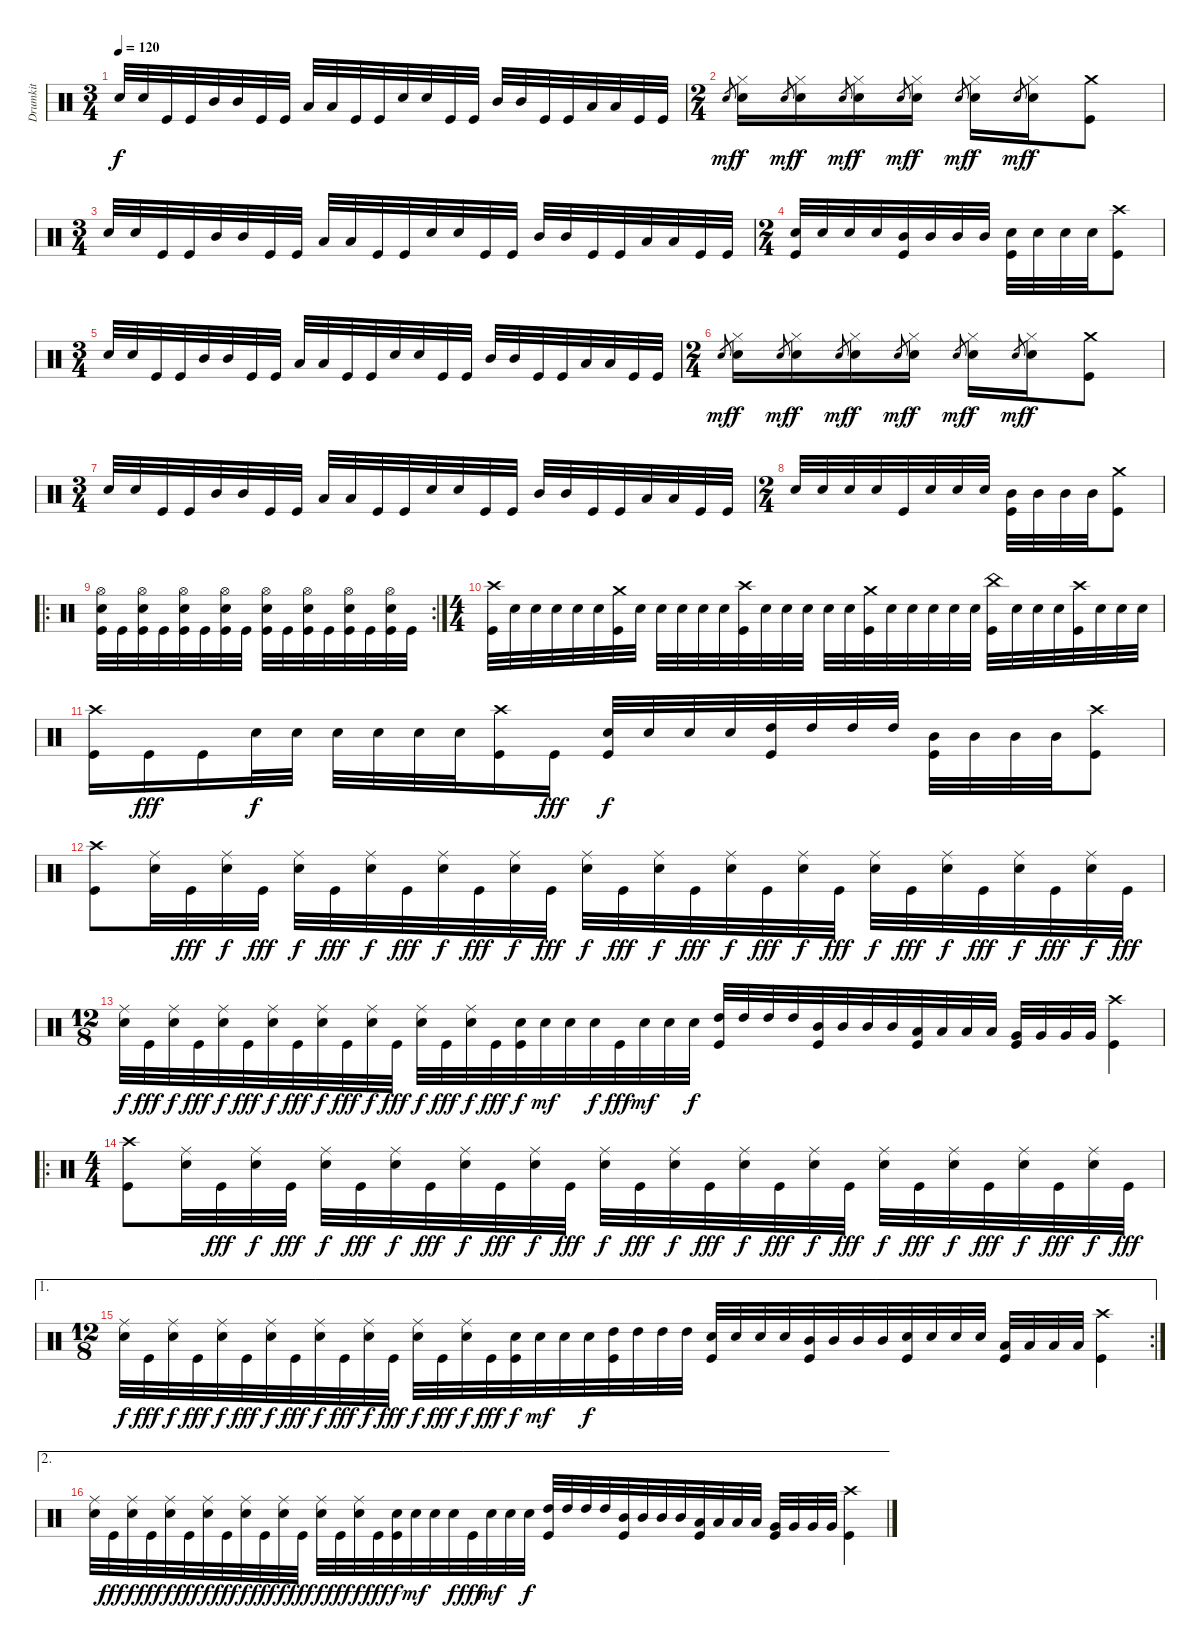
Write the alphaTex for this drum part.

\track ("Drumkit" "Drumkit") {instrument percussion}
\staff {score}
\articulation defaults
\ts (3 4)
\tempo 120
\clef neutral
\ks c "Snare (hit) 2".32{dy f} "Snare (hit) 2".32 "Kick (hit)".32 "Kick (hit)".32 "Mid Tom (hit)".32 "Mid Tom (hit)".32 "Kick (hit)".32 "Kick (hit)".32 "Low Tom (hit)".32 "Low Tom (hit)".32 "Kick (hit)".32 "Kick (hit)".32 "Snare (hit) 2".32 "Snare (hit) 2".32 "Kick (hit)".32 "Kick (hit)".32 "Mid Tom (hit)".32 "Mid Tom (hit)".32 "Kick (hit)".32 "Kick (hit)".32 "Low Tom (hit)".32 "Low Tom (hit)".32 "Kick (hit)".32 "Kick (hit)".32
|
\ts (2 4)
"Snare (hit)".8{gr dy mf} ("Hi-Hat (closed)" "Snare (hit) 2").16{dy f} "Snare (hit)".8{gr dy mf} ("Hi-Hat (closed)" "Snare (hit) 2").16{dy f} "Snare (hit)".8{gr dy mf} ("Hi-Hat (closed)" "Snare (hit) 2").16{dy f} "Snare (hit)".8{gr dy mf} ("Hi-Hat (closed)" "Snare (hit) 2").16{dy f} "Snare (hit)".8{gr dy mf} ("Hi-Hat (closed)" "Snare (hit) 2").16{dy f} "Snare (hit)".8{gr dy mf} ("Hi-Hat (closed)" "Snare (hit) 2").16{dy f} ("Crash medium (hit)" "Kick (hit)").8 |
\ts (3 4)
"Snare (hit) 2".32 "Snare (hit) 2".32 "Kick (hit)".32 "Kick (hit)".32 "Mid Tom (hit)".32 "Mid Tom (hit)".32 "Kick (hit)".32 "Kick (hit)".32 "Low Tom (hit)".32 "Low Tom (hit)".32 "Kick (hit)".32 "Kick (hit)".32 "Snare (hit) 2".32 "Snare (hit) 2".32 "Kick (hit)".32 "Kick (hit)".32 "Mid Tom (hit)".32 "Mid Tom (hit)".32 "Kick (hit)".32 "Kick (hit)".32 "Low Tom (hit)".32 "Low Tom (hit)".32 "Kick (hit)".32 "Kick (hit)".32 |
\ts (2 4)
("Snare (hit) 2" "Kick (hit)").32 "Snare (hit) 2".32 "Snare (hit) 2".32 "Snare (hit) 2".32 ("Mid Tom (hit)" "Kick (hit)").32 "Mid Tom (hit)".32 "Mid Tom (hit)".32 "Mid Tom (hit)".32 ("Snare (hit) 2" "Kick (hit)").32 "Snare (hit) 2".32 "Snare (hit) 2".32 "Snare (hit) 2".32 ("Crash high (hit)" "Kick (hit)").8 |
\ts (3 4)
"Snare (hit) 2".32 "Snare (hit) 2".32 "Kick (hit)".32 "Kick (hit)".32 "Mid Tom (hit)".32 "Mid Tom (hit)".32 "Kick (hit)".32 "Kick (hit)".32 "Low Tom (hit)".32 "Low Tom (hit)".32 "Kick (hit)".32 "Kick (hit)".32 "Snare (hit) 2".32 "Snare (hit) 2".32 "Kick (hit)".32 "Kick (hit)".32 "Mid Tom (hit)".32 "Mid Tom (hit)".32 "Kick (hit)".32 "Kick (hit)".32 "Low Tom (hit)".32 "Low Tom (hit)".32 "Kick (hit)".32 "Kick (hit)".32 |
\ts (2 4)
"Snare (hit)".8{gr dy mf} ("Hi-Hat (closed)" "Snare (hit) 2").16{dy f} "Snare (hit)".8{gr dy mf} ("Hi-Hat (closed)" "Snare (hit) 2").16{dy f} "Snare (hit)".8{gr dy mf} ("Hi-Hat (closed)" "Snare (hit) 2").16{dy f} "Snare (hit)".8{gr dy mf} ("Hi-Hat (closed)" "Snare (hit) 2").16{dy f} "Snare (hit)".8{gr dy mf} ("Hi-Hat (closed)" "Snare (hit) 2").16{dy f} "Snare (hit)".8{gr dy mf} ("Hi-Hat (closed)" "Snare (hit) 2").16{dy f} ("Crash medium (hit)" "Kick (hit)").8 |
\ts (3 4)
"Snare (hit) 2".32 "Snare (hit) 2".32 "Kick (hit)".32 "Kick (hit)".32 "Mid Tom (hit)".32 "Mid Tom (hit)".32 "Kick (hit)".32 "Kick (hit)".32 "Low Tom (hit)".32 "Low Tom (hit)".32 "Kick (hit)".32 "Kick (hit)".32 "Snare (hit) 2".32 "Snare (hit) 2".32 "Kick (hit)".32 "Kick (hit)".32 "Mid Tom (hit)".32 "Mid Tom (hit)".32 "Kick (hit)".32 "Kick (hit)".32 "Low Tom (hit)".32 "Low Tom (hit)".32 "Kick (hit)".32 "Kick (hit)".32 |
\ts (2 4)
"Snare (hit) 2".32 "Snare (hit) 2".32 "Snare (hit) 2".32 "Snare (hit) 2".32 "Kick (hit)".32 "Snare (hit) 2".32 "Snare (hit) 2".32 "Snare (hit) 2".32 ("Mid Tom (hit)" "Kick (hit)").32 "Mid Tom (hit)".32 "Mid Tom (hit)".32 "Mid Tom (hit)".32 ("Crash medium (hit)" "Kick (hit)").8 |
\ro
\rc 2
("Hi-Hat (open)" "Snare (hit) 2" "Kick (hit)").32 "Kick (hit)".32 ("Hi-Hat (open)" "Snare (hit) 2" "Kick (hit)").32 "Kick (hit)".32 ("Hi-Hat (open)" "Snare (hit) 2" "Kick (hit)").32 "Kick (hit)".32 ("Hi-Hat (open)" "Snare (hit) 2" "Kick (hit)").32 "Kick (hit)".32 ("Hi-Hat (open)" "Snare (hit) 2" "Kick (hit)").32 "Kick (hit)".32 ("Hi-Hat (open)" "Snare (hit) 2" "Kick (hit)").32 "Kick (hit)".32 ("Hi-Hat (open)" "Snare (hit) 2" "Kick (hit)").32 "Kick (hit)".32 ("Hi-Hat (open)" "Snare (hit) 2" "Kick (hit)").32 "Kick (hit)".32 |
\ts (4 4)
("Crash high (hit)" "Kick (hit)").32 "Snare (hit) 2".32 "Snare (hit) 2".32 "Snare (hit) 2".32 "Snare (hit) 2".32 "Snare (hit) 2".32 ("Crash medium (hit)" "Kick (hit)").32 "Snare (hit) 2".32 "Snare (hit) 2".32 "Snare (hit) 2".32 "Snare (hit) 2".32 "Snare (hit) 2".32 ("Crash high (hit)" "Kick (hit)").32 "Snare (hit) 2".32 "Snare (hit) 2".32 "Snare (hit) 2".32 "Snare (hit) 2".32 "Snare (hit) 2".32 ("Crash medium (hit)" "Kick (hit)").32 "Snare (hit) 2".32 "Snare (hit) 2".32 "Snare (hit) 2".32 "Snare (hit) 2".32 "Snare (hit) 2".32 ("China (hit)" "Kick (hit)").32 "Snare (hit) 2".32 "Snare (hit) 2".32 "Snare (hit) 2".32 ("Crash high (hit)" "Kick (hit)").32 "Snare (hit) 2".32 "Snare (hit) 2".32 "Snare (hit) 2".32 |
("Crash high (hit)" "Kick (hit)").16 "Kick (hit)".16{dy fff} "Kick (hit)".16 "Snare (hit) 2".32{dy f} "Snare (hit) 2".32 "Snare (hit) 2".32 "Snare (hit) 2".32 "Snare (hit) 2".32 "Snare (hit) 2".32 ("Crash high (hit)" "Kick (hit)").16 "Kick (hit)".16{dy fff} ("Snare (hit) 2" "Kick (hit)").32{dy f} "Snare (hit) 2".32 "Snare (hit) 2".32 "Snare (hit) 2".32 ("High Tom (hit)" "Kick (hit)").32 "High Tom (hit)".32 "High Tom (hit)".32 "High Tom (hit)".32 ("Mid Tom (hit)" "Kick (hit)").32 "Mid Tom (hit)".32 "Mid Tom (hit)".32 "Mid Tom (hit)".32 ("Crash high (hit)" "Kick (hit)").8 |
("Crash high (hit)" "Kick (hit)").8 ("Ride (middle)" "Snare (hit) 2").32 "Kick (hit)".32{dy fff} ("Ride (middle)" "Snare (hit) 2").32{dy f} "Kick (hit)".32{dy fff} ("Ride (middle)" "Snare (hit) 2").32{dy f} "Kick (hit)".32{dy fff} ("Ride (middle)" "Snare (hit) 2").32{dy f} "Kick (hit)".32{dy fff} ("Ride (middle)" "Snare (hit) 2").32{dy f} "Kick (hit)".32{dy fff} ("Ride (middle)" "Snare (hit) 2").32{dy f} "Kick (hit)".32{dy fff} ("Ride (middle)" "Snare (hit) 2").32{dy f} "Kick (hit)".32{dy fff} ("Ride (middle)" "Snare (hit) 2").32{dy f} "Kick (hit)".32{dy fff} ("Ride (middle)" "Snare (hit) 2").32{dy f} "Kick (hit)".32{dy fff} ("Ride (middle)" "Snare (hit) 2").32{dy f} "Kick (hit)".32{dy fff} ("Ride (middle)" "Snare (hit) 2").32{dy f} "Kick (hit)".32{dy fff} ("Ride (middle)" "Snare (hit) 2").32{dy f} "Kick (hit)".32{dy fff} ("Ride (middle)" "Snare (hit) 2").32{dy f} "Kick (hit)".32{dy fff} ("Ride (middle)" "Snare (hit) 2").32{dy f} "Kick (hit)".32{dy fff} |
\ts (12 8)
("Ride (middle)" "Snare (hit) 2").32{dy f} "Kick (hit)".32{dy fff} ("Ride (middle)" "Snare (hit) 2").32{dy f} "Kick (hit)".32{dy fff} ("Ride (middle)" "Snare (hit) 2").32{dy f} "Kick (hit)".32{dy fff} ("Ride (middle)" "Snare (hit) 2").32{dy f} "Kick (hit)".32{dy fff} ("Ride (middle)" "Snare (hit) 2").32{dy f} "Kick (hit)".32{dy fff} ("Ride (middle)" "Snare (hit) 2").32{dy f} "Kick (hit)".32{dy fff} ("Ride (middle)" "Snare (hit) 2").32{dy f} "Kick (hit)".32{dy fff} ("Ride (middle)" "Snare (hit) 2").32{dy f} "Kick (hit)".32{dy fff} ("Snare (hit) 2" "Kick (hit)").32{dy f} "Snare (hit) 2".32{dy mf} "Snare (hit) 2".32 "Snare (hit) 2".32{dy f} "Kick (hit)".32{dy fff} "Snare (hit) 2".32{dy mf} "Snare (hit) 2".32 "Snare (hit) 2".32{dy f} ("High Tom (hit)" "Kick (hit)").32 "High Tom (hit)".32 "High Tom (hit)".32 "High Tom (hit)".32 ("Mid Tom (hit)" "Kick (hit)").32 "Mid Tom (hit)".32 "Mid Tom (hit)".32 "Mid Tom (hit)".32 ("Low Tom (hit)" "Kick (hit)").32 "Low Tom (hit)".32 "Low Tom (hit)".32 "Low Tom (hit)".32 ("Very Low Tom (hit)" "Kick (hit)").32 "Very Low Tom (hit)".32 "Very Low Tom (hit)".32 "Very Low Tom (hit)".32 ("Crash high (hit)" "Kick (hit)").4 |
\ro
\ts (4 4)
("Crash high (hit)" "Kick (hit)").8 ("Ride (middle)" "Snare (hit) 2").32 "Kick (hit)".32{dy fff} ("Ride (middle)" "Snare (hit) 2").32{dy f} "Kick (hit)".32{dy fff} ("Ride (middle)" "Snare (hit) 2").32{dy f} "Kick (hit)".32{dy fff} ("Ride (middle)" "Snare (hit) 2").32{dy f} "Kick (hit)".32{dy fff} ("Ride (middle)" "Snare (hit) 2").32{dy f} "Kick (hit)".32{dy fff} ("Ride (middle)" "Snare (hit) 2").32{dy f} "Kick (hit)".32{dy fff} ("Ride (middle)" "Snare (hit) 2").32{dy f} "Kick (hit)".32{dy fff} ("Ride (middle)" "Snare (hit) 2").32{dy f} "Kick (hit)".32{dy fff} ("Ride (middle)" "Snare (hit) 2").32{dy f} "Kick (hit)".32{dy fff} ("Ride (middle)" "Snare (hit) 2").32{dy f} "Kick (hit)".32{dy fff} ("Ride (middle)" "Snare (hit) 2").32{dy f} "Kick (hit)".32{dy fff} ("Ride (middle)" "Snare (hit) 2").32{dy f} "Kick (hit)".32{dy fff} ("Ride (middle)" "Snare (hit) 2").32{dy f} "Kick (hit)".32{dy fff} ("Ride (middle)" "Snare (hit) 2").32{dy f} "Kick (hit)".32{dy fff} |
\ae 1
\rc 2
\ts (12 8)
("Ride (middle)" "Snare (hit) 2").32{dy f} "Kick (hit)".32{dy fff} ("Ride (middle)" "Snare (hit) 2").32{dy f} "Kick (hit)".32{dy fff} ("Ride (middle)" "Snare (hit) 2").32{dy f} "Kick (hit)".32{dy fff} ("Ride (middle)" "Snare (hit) 2").32{dy f} "Kick (hit)".32{dy fff} ("Ride (middle)" "Snare (hit) 2").32{dy f} "Kick (hit)".32{dy fff} ("Ride (middle)" "Snare (hit) 2").32{dy f} "Kick (hit)".32{dy fff} ("Ride (middle)" "Snare (hit) 2").32{dy f} "Kick (hit)".32{dy fff} ("Ride (middle)" "Snare (hit) 2").32{dy f} "Kick (hit)".32{dy fff} ("Snare (hit) 2" "Kick (hit)").32{dy f} "Snare (hit) 2".32{dy mf} "Snare (hit) 2".32 "Snare (hit) 2".32{dy f} ("High Tom (hit)" "Kick (hit)").32 "High Tom (hit)".32 "High Tom (hit)".32 "High Tom (hit)".32 ("Snare (hit) 2" "Kick (hit)").32 "Snare (hit) 2".32 "Snare (hit) 2".32 "Snare (hit) 2".32 ("Mid Tom (hit)" "Kick (hit)").32 "Mid Tom (hit)".32 "Mid Tom (hit)".32 "Mid Tom (hit)".32 ("Snare (hit) 2" "Kick (hit)").32 "Snare (hit) 2".32 "Snare (hit) 2".32 "Snare (hit) 2".32 ("Low Tom (hit)" "Kick (hit)").32 "Low Tom (hit)".32 "Low Tom (hit)".32 "Low Tom (hit)".32 ("Crash high (hit)" "Kick (hit)").4 |
\ae 2
("Ride (middle)" "Snare (hit) 2").32 "Kick (hit)".32{dy fff} ("Ride (middle)" "Snare (hit) 2").32{dy f} "Kick (hit)".32{dy fff} ("Ride (middle)" "Snare (hit) 2").32{dy f} "Kick (hit)".32{dy fff} ("Ride (middle)" "Snare (hit) 2").32{dy f} "Kick (hit)".32{dy fff} ("Ride (middle)" "Snare (hit) 2").32{dy f} "Kick (hit)".32{dy fff} ("Ride (middle)" "Snare (hit) 2").32{dy f} "Kick (hit)".32{dy fff} ("Ride (middle)" "Snare (hit) 2").32{dy f} "Kick (hit)".32{dy fff} ("Ride (middle)" "Snare (hit) 2").32{dy f} "Kick (hit)".32{dy fff} ("Snare (hit) 2" "Kick (hit)").32{dy f} "Snare (hit) 2".32{dy mf} "Snare (hit) 2".32 "Snare (hit) 2".32{dy f} "Kick (hit)".32{dy fff} "Snare (hit) 2".32{dy mf} "Snare (hit) 2".32 "Snare (hit) 2".32{dy f} ("High Tom (hit)" "Kick (hit)").32 "High Tom (hit)".32 "High Tom (hit)".32 "High Tom (hit)".32 ("Mid Tom (hit)" "Kick (hit)").32 "Mid Tom (hit)".32 "Mid Tom (hit)".32 "Mid Tom (hit)".32 ("Low Tom (hit)" "Kick (hit)").32 "Low Tom (hit)".32 "Low Tom (hit)".32 "Low Tom (hit)".32 ("Very Low Tom (hit)" "Kick (hit)").32 "Very Low Tom (hit)".32 "Very Low Tom (hit)".32 "Very Low Tom (hit)".32 ("Crash high (hit)" "Kick (hit)").4
